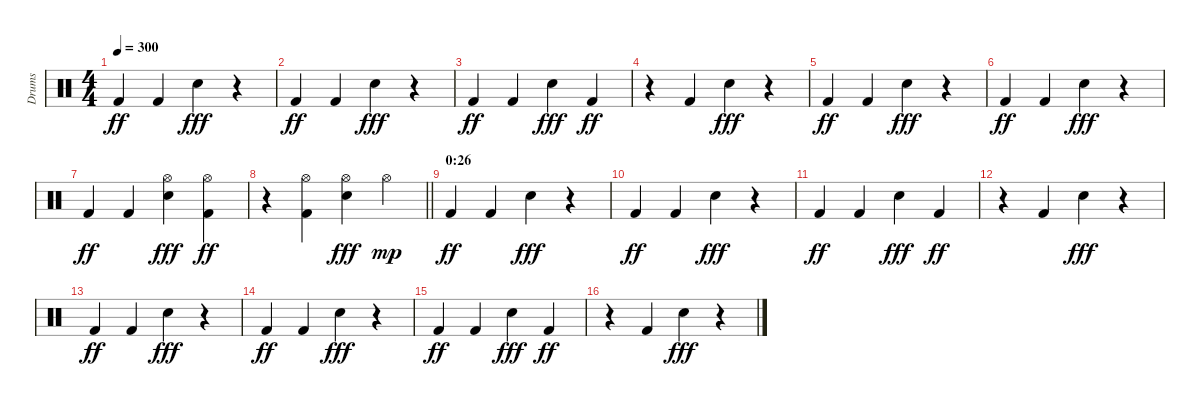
\track ("Drums" "Drums") {instrument percussion}
\staff {score}
\articulation defaults
\ts (4 4)
\tempo 300
\clef neutral
\ks c "Kick (hit) 2".4{dy ff} "Kick (hit) 2".4 "Electric Snare (hit)".4{dy fff}
r.4 |
"Kick (hit) 2".4{dy ff} "Kick (hit) 2".4 "Electric Snare (hit)".4{dy fff} r.4 |
"Kick (hit) 2".4{dy ff} "Kick (hit) 2".4 "Electric Snare (hit)".4{dy fff} "Kick (hit) 2".4{dy ff} |
r.4 "Kick (hit) 2".4 "Electric Snare (hit)".4{dy fff} r.4 |
"Kick (hit) 2".4{dy ff} "Kick (hit) 2".4 "Electric Snare (hit)".4{dy fff} r.4 |
"Kick (hit) 2".4{dy ff} "Kick (hit) 2".4 "Electric Snare (hit)".4{dy fff} r.4 |
"Kick (hit) 2".4{dy ff} "Kick (hit) 2".4 ("Hi-Hat (open)" "Electric Snare (hit)").4{dy fff} ("Hi-Hat (open)" "Kick (hit) 2").4{dy ff} |
\barLineRight lightlight
r.4 ("Hi-Hat (open)" "Kick (hit) 2").4 ("Hi-Hat (open)" "Electric Snare (hit)").4{dy fff} "Hi-Hat (open)".4{dy mp} |
\section ("" "0:26")
"Kick (hit) 2".4{dy ff} "Kick (hit) 2".4 "Electric Snare (hit)".4{dy fff} r.4 |
"Kick (hit) 2".4{dy ff} "Kick (hit) 2".4 "Electric Snare (hit)".4{dy fff} r.4 |
"Kick (hit) 2".4{dy ff} "Kick (hit) 2".4 "Electric Snare (hit)".4{dy fff} "Kick (hit) 2".4{dy ff} |
r.4 "Kick (hit) 2".4 "Electric Snare (hit)".4{dy fff} r.4 |
"Kick (hit) 2".4{dy ff} "Kick (hit) 2".4 "Electric Snare (hit)".4{dy fff} r.4 |
"Kick (hit) 2".4{dy ff} "Kick (hit) 2".4 "Electric Snare (hit)".4{dy fff} r.4 |
"Kick (hit) 2".4{dy ff} "Kick (hit) 2".4 "Electric Snare (hit)".4{dy fff} "Kick (hit) 2".4{dy ff} |
r.4 "Kick (hit) 2".4 "Electric Snare (hit)".4{dy fff} r.4
